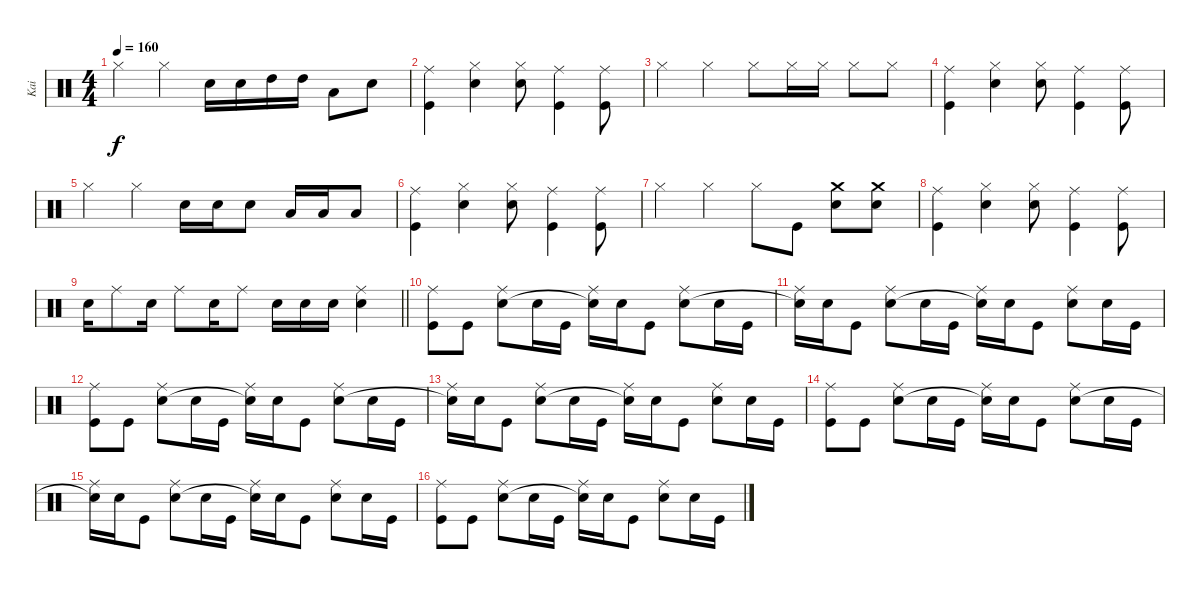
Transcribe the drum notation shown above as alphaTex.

\track ("Kai" "Kai") {instrument percussion}
\staff {score}
\articulation defaults
\ts (4 4)
\tempo 160
\clef neutral
\ks c "Hi-Hat (closed)".4{dy f} "Hi-Hat (closed)".4 "Snare (hit) 2".16 "Snare (hit) 2".16 "High Tom (hit)".16 "High Tom (hit)".16 "Low Tom (hit)".8 "Snare (hit) 2".8
|
("Ride (middle)" "Kick (hit)").4 ("Hi-Hat (closed)" "Snare (hit) 2").4 ("Hi-Hat (closed)" "Snare (hit) 2").8 ("Ride (middle)" "Kick (hit)").4 ("Ride (middle)" "Kick (hit)").8 |
"Hi-Hat (closed)".4 "Hi-Hat (closed)".4 "Hi-Hat (closed)".8 "Hi-Hat (closed)".16 "Hi-Hat (closed)".16 "Hi-Hat (closed)".8 "Hi-Hat (closed)".8 |
("Ride (middle)" "Kick (hit)").4 ("Hi-Hat (closed)" "Snare (hit) 2").4 ("Hi-Hat (closed)" "Snare (hit) 2").8 ("Ride (middle)" "Kick (hit)").4 ("Ride (middle)" "Kick (hit)").8 |
"Hi-Hat (closed)".4 "Hi-Hat (closed)".4 "Snare (hit) 2".16 "Snare (hit) 2".16 "Snare (hit) 2".8 "Low Tom (hit)".16 "Low Tom (hit)".16 "Low Tom (hit)".8 |
("Ride (middle)" "Kick (hit)").4 ("Hi-Hat (closed)" "Snare (hit) 2").4 ("Hi-Hat (closed)" "Snare (hit) 2").8 ("Ride (middle)" "Kick (hit)").4 ("Ride (middle)" "Kick (hit)").8 |
"Hi-Hat (closed)".4 "Hi-Hat (closed)".4 "Hi-Hat (closed)".8 "Kick (hit)".8 ("Crash medium (hit)" "Snare (hit) 2").8 ("Crash medium (hit)" "Snare (hit) 2").8 |
("Ride (middle)" "Kick (hit)").4 ("Hi-Hat (closed)" "Snare (hit) 2").4 ("Hi-Hat (closed)" "Snare (hit) 2").8 ("Ride (middle)" "Kick (hit)").4 ("Ride (middle)" "Kick (hit)").8 |
\barLineRight lightlight "Snare (hit) 2".16 "Ride (middle)".8 "Snare (hit) 2".16 "Ride (middle)".8 "Snare (hit) 2".16 "Ride (middle)".8 "Snare (hit) 2".16 "Snare (hit) 2".16 "Snare (hit) 2".16
("Ride (middle)" "Snare (hit) 2").4 |
\section ("" "")
("Ride (middle)" "Kick (hit)").8 "Kick (hit)".8 ("Ride (middle)" "Snare (hit) 2").8 "Snare (hit) 2".16 "Kick (hit)".16 ("Ride (middle)" "Snare (hit)"{t}).16 "Snare (hit) 2".16 "Kick (hit)".8 ("Ride (middle)" "Snare (hit) 2").8 "Snare (hit) 2".16 "Kick (hit)".16 |
("Ride (middle)" "Snare (hit)"{t}).16 "Snare (hit) 2".16 "Kick (hit)".8 ("Ride (middle)" "Snare (hit) 2").8 "Snare (hit) 2".16 "Kick (hit)".16 ("Ride (middle)" "Snare (hit)"{t}).16 "Snare (hit) 2".16 "Kick (hit)".8 ("Ride (middle)" "Snare (hit) 2").8 "Snare (hit) 2".16 "Kick (hit)".16 |
("Ride (middle)" "Kick (hit)").8 "Kick (hit)".8 ("Ride (middle)" "Snare (hit) 2").8 "Snare (hit) 2".16 "Kick (hit)".16 ("Ride (middle)" "Snare (hit)"{t}).16 "Snare (hit) 2".16 "Kick (hit)".8 ("Ride (middle)" "Snare (hit) 2").8 "Snare (hit) 2".16 "Kick (hit)".16 |
("Ride (middle)" "Snare (hit)"{t}).16 "Snare (hit) 2".16 "Kick (hit)".8 ("Ride (middle)" "Snare (hit) 2").8 "Snare (hit) 2".16 "Kick (hit)".16 ("Ride (middle)" "Snare (hit)"{t}).16 "Snare (hit) 2".16 "Kick (hit)".8 ("Ride (middle)" "Snare (hit) 2").8 "Snare (hit) 2".16 "Kick (hit)".16 |
("Ride (middle)" "Kick (hit)").8 "Kick (hit)".8 ("Ride (middle)" "Snare (hit) 2").8 "Snare (hit) 2".16 "Kick (hit)".16 ("Ride (middle)" "Snare (hit)"{t}).16 "Snare (hit) 2".16 "Kick (hit)".8 ("Ride (middle)" "Snare (hit) 2").8 "Snare (hit) 2".16 "Kick (hit)".16 |
("Ride (middle)" "Snare (hit)"{t}).16 "Snare (hit) 2".16 "Kick (hit)".8 ("Ride (middle)" "Snare (hit) 2").8 "Snare (hit) 2".16 "Kick (hit)".16 ("Ride (middle)" "Snare (hit)"{t}).16 "Snare (hit) 2".16 "Kick (hit)".8 ("Ride (middle)" "Snare (hit) 2").8 "Snare (hit) 2".16 "Kick (hit)".16 |
("Ride (middle)" "Kick (hit)").8 "Kick (hit)".8 ("Ride (middle)" "Snare (hit) 2").8 "Snare (hit) 2".16 "Kick (hit)".16 ("Ride (middle)" "Snare (hit)"{t}).16 "Snare (hit) 2".16 "Kick (hit)".8 ("Ride (middle)" "Snare (hit) 2").8 "Snare (hit) 2".16 "Kick (hit)".16
